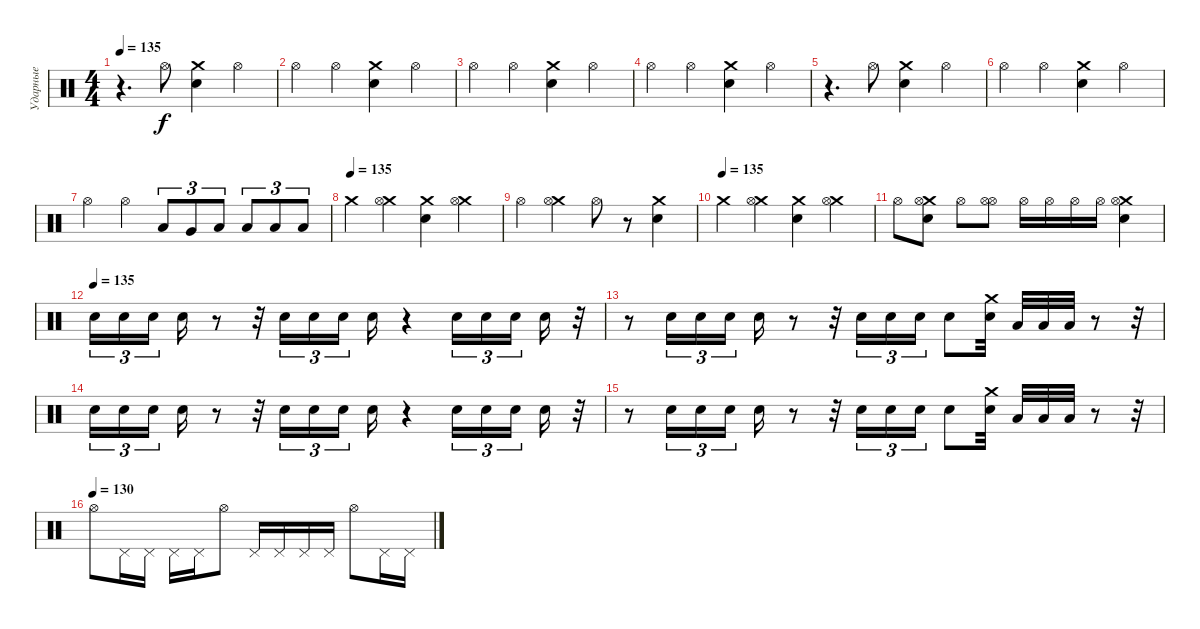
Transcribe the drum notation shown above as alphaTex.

\track ("Ударные" "Ударные") {instrument percussion}
\staff {score}
\articulation defaults
\ts (4 4)
\tempo 135
\clef neutral
\ks c
r.4{d dy f} "Hi-Hat (open)".8 ("Crash medium (hit)" "Electric Snare (hit)").4 "Hi-Hat (open)".4 |
"Hi-Hat (open)".4 "Hi-Hat (open)".4 ("Crash medium (hit)" "Electric Snare (hit)").4 "Hi-Hat (open)".4 |
"Hi-Hat (open)".4 "Hi-Hat (open)".4 ("Crash medium (hit)" "Electric Snare (hit)").4 "Hi-Hat (open)".4 |
"Hi-Hat (open)".4 "Hi-Hat (open)".4 ("Crash medium (hit)" "Electric Snare (hit)").4 "Hi-Hat (open)".4 |
r.4{d} "Hi-Hat (open)".8 ("Crash medium (hit)" "Electric Snare (hit)").4 "Hi-Hat (open)".4 |
"Hi-Hat (open)".4 "Hi-Hat (open)".4 ("Crash medium (hit)" "Electric Snare (hit)").4 "Hi-Hat (open)".4 |
"Hi-Hat (open)".4 "Hi-Hat (open)".4 "Low Tom (hit)".8{tu (3 2)} "Very Low Tom (hit)".8{tu (3 2)} "Low Floor Tom (hit)".8{tu (3 2)} "Low Floor Tom (hit)".8{tu (3 2)} "Low Floor Tom (hit)".8{tu (3 2)} "Low Floor Tom (hit)".8{tu (3 2)} |
\tempo (135)
"Crash medium (hit)".4 ("Crash medium (hit)" "Hi-Hat (open)").4 ("Crash medium (hit)" "Electric Snare (hit)").4 ("Crash medium (hit)" "Hi-Hat (open)").4 |
"Hi-Hat (open)".4 ("Crash medium (hit)" "Hi-Hat (open)").4 "Hi-Hat (open)".8 r.8 ("Crash medium (hit)" "Electric Snare (hit)").4 |
\tempo (135)
"Crash medium (hit)".4 ("Crash medium (hit)" "Hi-Hat (open)").4 ("Crash medium (hit)" "Electric Snare (hit)").4 ("Crash medium (hit)" "Hi-Hat (open)").4 |
"Hi-Hat (open)".8 ("Crash medium (hit)" "Hi-Hat (open)" "Electric Snare (hit)").8 "Hi-Hat (open)".8 ("Hi-Hat (open)" "Hi-Hat (open)").8 "Hi-Hat (open)".16 "Hi-Hat (open)".16 "Hi-Hat (open)".16 "Hi-Hat (open)".16 ("Crash medium (hit)" "Hi-Hat (open)" "Electric Snare (hit)").4 |
\tempo (135)
"Electric Snare (hit)".16{tu (3 2)} "Electric Snare (hit)".16{tu (3 2)} "Electric Snare (hit)".16{tu (3 2) beam splitsecondary} "Electric Snare (hit)".16 r.8 r.32 "Electric Snare (hit)".16{tu (3 2)} "Electric Snare (hit)".16{tu (3 2)} "Electric Snare (hit)".16{tu (3 2) beam splitsecondary} "Electric Snare (hit)".16 r.4 "Electric Snare (hit)".16{tu (3 2)} "Electric Snare (hit)".16{tu (3 2)} "Electric Snare (hit)".16{tu (3 2) beam splitsecondary} "Electric Snare (hit)".16 r.32 |
r.8 "Electric Snare (hit)".16{tu (3 2)} "Electric Snare (hit)".16{tu (3 2)} "Electric Snare (hit)".16{tu (3 2)} "Electric Snare (hit)".16 r.8 r.32 "Electric Snare (hit)".16{tu (3 2)} "Electric Snare (hit)".16{tu (3 2)} "Electric Snare (hit)".16{tu (3 2)} "Electric Snare (hit)".8 ("Crash medium (hit)" "Electric Snare (hit)").32 "Low Tom (hit)".32 "Low Tom (hit)".32 "Low Tom (hit)".32 r.8 r.32 |
"Electric Snare (hit)".16{tu (3 2)} "Electric Snare (hit)".16{tu (3 2)} "Electric Snare (hit)".16{tu (3 2) beam splitsecondary} "Electric Snare (hit)".16 r.8 r.32 "Electric Snare (hit)".16{tu (3 2)} "Electric Snare (hit)".16{tu (3 2)} "Electric Snare (hit)".16{tu (3 2) beam splitsecondary} "Electric Snare (hit)".16 r.4 "Electric Snare (hit)".16{tu (3 2)} "Electric Snare (hit)".16{tu (3 2)} "Electric Snare (hit)".16{tu (3 2) beam splitsecondary} "Electric Snare (hit)".16 r.32 |
r.8 "Electric Snare (hit)".16{tu (3 2)} "Electric Snare (hit)".16{tu (3 2)} "Electric Snare (hit)".16{tu (3 2)} "Electric Snare (hit)".16 r.8 r.32 "Electric Snare (hit)".16{tu (3 2)} "Electric Snare (hit)".16{tu (3 2)} "Electric Snare (hit)".16{tu (3 2)} "Electric Snare (hit)".8 ("Crash medium (hit)" "Electric Snare (hit)").32 "Low Tom (hit)".32 "Low Tom (hit)".32 "Low Tom (hit)".32 r.8 r.32 |
\tempo (130)
"Hi-Hat (open)".8 "Pedal Hi-Hat (hit)".16 "Pedal Hi-Hat (hit)".16 "Pedal Hi-Hat (hit)".16 "Pedal Hi-Hat (hit)".16 "Hi-Hat (open)".8 "Pedal Hi-Hat (hit)".16 "Pedal Hi-Hat (hit)".16 "Pedal Hi-Hat (hit)".16 "Pedal Hi-Hat (hit)".16 "Hi-Hat (open)".8 "Pedal Hi-Hat (hit)".16 "Pedal Hi-Hat (hit)".16
